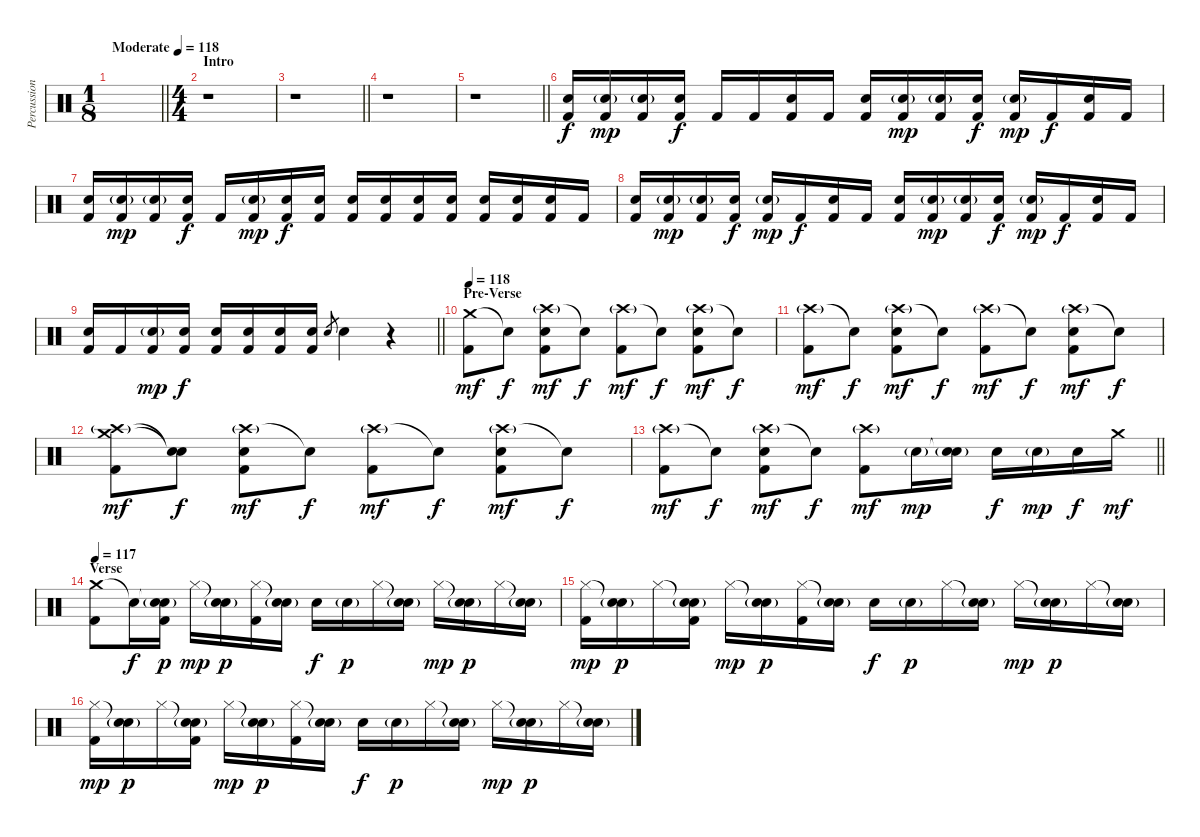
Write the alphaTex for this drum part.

\track ("Percussions" "Percussion") {instrument percussion}
\staff {score}
\articulation defaults
\ts (1 8)
\tempo (118 "Moderate")
\clef neutral
\barLineRight lightlight
\ks c
|
\ts (4 4)
\section ("" "Intro")
r.1 |
\barLineRight lightlight
r.1 |
r.1 |
\barLineRight lightlight
r.1 |
("Electric Snare (hit)" "Kick (hit) 2").16 ("Electric Snare (hit)"{g} "Kick (hit) 2").16{dy mp} ("Electric Snare (hit)"{g} "Kick (hit) 2").16 ("Electric Snare (hit)" "Kick (hit) 2").16{dy f} "Kick (hit) 2".16 "Kick (hit) 2".16 ("Electric Snare (hit)" "Kick (hit) 2").16 "Kick (hit) 2".16 ("Electric Snare (hit)" "Kick (hit) 2").16 ("Electric Snare (hit)"{g} "Kick (hit) 2").16{dy mp} ("Electric Snare (hit)"{g} "Kick (hit) 2").16 ("Electric Snare (hit)" "Kick (hit) 2").16{dy f} ("Electric Snare (hit)"{g} "Kick (hit) 2").16{dy mp} "Kick (hit) 2".16{dy f} ("Electric Snare (hit)" "Kick (hit) 2").16 "Kick (hit) 2".16 |
("Electric Snare (hit)" "Kick (hit) 2").16 ("Electric Snare (hit)"{g} "Kick (hit) 2").16{dy mp} ("Electric Snare (hit)"{g} "Kick (hit) 2").16 ("Electric Snare (hit)" "Kick (hit) 2").16{dy f} "Kick (hit) 2".16 ("Electric Snare (hit)"{g} "Kick (hit) 2").16{dy mp} ("Electric Snare (hit)" "Kick (hit) 2").16{dy f} ("Electric Snare (hit)" "Kick (hit) 2").16 ("Electric Snare (hit)" "Kick (hit) 2").16 ("Electric Snare (hit)" "Kick (hit) 2").16 ("Electric Snare (hit)" "Kick (hit) 2").16 ("Electric Snare (hit)" "Kick (hit) 2").16 ("Electric Snare (hit)" "Kick (hit) 2").16 ("Electric Snare (hit)" "Kick (hit) 2").16 ("Electric Snare (hit)" "Kick (hit) 2").16 "Kick (hit) 2".16 |
("Electric Snare (hit)" "Kick (hit) 2").16 ("Electric Snare (hit)"{g} "Kick (hit) 2").16{dy mp} ("Electric Snare (hit)"{g} "Kick (hit) 2").16 ("Electric Snare (hit)" "Kick (hit) 2").16{dy f} ("Electric Snare (hit)"{g} "Kick (hit) 2").16{dy mp} "Kick (hit) 2".16{dy f} ("Electric Snare (hit)" "Kick (hit) 2").16 "Kick (hit) 2".16 ("Electric Snare (hit)" "Kick (hit) 2").16 ("Electric Snare (hit)"{g} "Kick (hit) 2").16{dy mp} ("Electric Snare (hit)"{g} "Kick (hit) 2").16 ("Electric Snare (hit)" "Kick (hit) 2").16{dy f} ("Electric Snare (hit)"{g} "Kick (hit) 2").16{dy mp} "Kick (hit) 2".16{dy f} ("Electric Snare (hit)" "Kick (hit) 2").16 "Kick (hit) 2".16 |
\barLineRight lightlight
("Electric Snare (hit)" "Kick (hit) 2").16 "Kick (hit) 2".16 ("Electric Snare (hit)"{g} "Kick (hit) 2").16{dy mp} ("Electric Snare (hit)" "Kick (hit) 2").16{dy f} ("Electric Snare (hit)" "Kick (hit) 2").16 ("Electric Snare (hit)" "Kick (hit) 2").16 ("Electric Snare (hit)" "Kick (hit) 2").16 ("Electric Snare (hit)" "Kick (hit) 2").16 "Electric Snare (hit)".8{gr} "Electric Snare (hit)".4 r.4 |
\section ("" "Pre-Verse")
\tempo 118
("Crash medium (hit)" "Kick (hit) 2").8{dy mf} "Snare (hit)"{t}.8{dy f} ("Crash high (hit)"{g} "Electric Snare (hit)" "Kick (hit) 2").8{dy mf} "Snare (hit)"{t}.8{dy f} ("Crash high (hit)"{g} "Kick (hit) 2").8{dy mf} "Snare (hit)"{t}.8{dy f} ("Crash high (hit)"{g} "Electric Snare (hit)" "Kick (hit) 2").8{dy mf} "Snare (hit)"{t}.8{dy f} |
("Crash high (hit)"{g} "Kick (hit) 2").8{dy mf} "Snare (hit)"{t}.8{dy f} ("Crash high (hit)"{g} "Electric Snare (hit)" "Kick (hit) 2").8{dy mf} "Snare (hit)"{t}.8{dy f} ("Crash high (hit)"{g} "Kick (hit) 2").8{dy mf} "Snare (hit)"{t}.8{dy f} ("Crash high (hit)"{g} "Electric Snare (hit)" "Kick (hit) 2").8{dy mf} "Snare (hit)"{t}.8{dy f} |
("Crash medium (hit)" "Crash high (hit)"{g} "Kick (hit) 2").8{dy mf} ("Snare (hit)"{t} "Snare (hit)"{t}).8{dy f} ("Crash high (hit)"{g} "Electric Snare (hit)" "Kick (hit) 2").8{dy mf} "Snare (hit)"{t}.8{dy f} ("Crash high (hit)"{g} "Kick (hit) 2").8{dy mf} "Snare (hit)"{t}.8{dy f} ("Crash high (hit)"{g} "Electric Snare (hit)" "Kick (hit) 2").8{dy mf} "Snare (hit)"{t}.8{dy f} |
\barLineRight lightlight
("Crash high (hit)"{g} "Kick (hit) 2").8{dy mf} "Snare (hit)"{t}.8{dy f} ("Crash high (hit)"{g} "Electric Snare (hit)" "Kick (hit) 2").8{dy mf} "Snare (hit)"{t}.8{dy f} ("Crash high (hit)"{g} "Kick (hit) 2").8{dy mf} "Electric Snare (hit)"{g}.16{dy mp} ("Snare (hit)"{t} "Electric Snare (hit)"{g}).16 "Electric Snare (hit)".16{dy f} "Electric Snare (hit)"{g}.16{dy mp} "Electric Snare (hit)".16{dy f} "Crash medium (hit)".16{dy mf} |
\section ("" "Verse")
\tempo 117
("Crash medium (hit)" "Kick (hit) 2").8 "Snare (hit)"{t}.16{dy f} ("Snare (hit)"{t} "Electric Snare (hit)"{g} "Kick (hit) 2").16{dy p} "Hi-Hat (closed)".16{dy mp} ("Snare (hit)"{t} "Electric Snare (hit)"{g}).16{dy p} ("Hi-Hat (closed)" "Kick (hit) 2").16 ("Snare (hit)"{t} "Electric Snare (hit)"{g}).16 "Electric Snare (hit)".16{dy f} "Electric Snare (hit)"{g}.16{dy p} "Hi-Hat (closed)".16 ("Snare (hit)"{t} "Electric Snare (hit)"{g}).16 "Hi-Hat (closed)".16{dy mp} ("Snare (hit)"{t} "Electric Snare (hit)"{g}).16{dy p} "Hi-Hat (closed)".16 ("Snare (hit)"{t} "Electric Snare (hit)"{g}).16 |
("Hi-Hat (closed)" "Kick (hit) 2").16{dy mp} ("Snare (hit)"{t} "Electric Snare (hit)"{g}).16{dy p} "Hi-Hat (closed)".16 ("Snare (hit)"{t} "Electric Snare (hit)"{g} "Kick (hit) 2").16 "Hi-Hat (closed)".16{dy mp} ("Snare (hit)"{t} "Electric Snare (hit)"{g}).16{dy p} ("Hi-Hat (closed)" "Kick (hit) 2").16 ("Snare (hit)"{t} "Electric Snare (hit)"{g}).16 "Electric Snare (hit)".16{dy f} "Electric Snare (hit)"{g}.16{dy p} "Hi-Hat (closed)".16 ("Snare (hit)"{t} "Electric Snare (hit)"{g}).16 "Hi-Hat (closed)".16{dy mp} ("Snare (hit)"{t} "Electric Snare (hit)"{g}).16{dy p} "Hi-Hat (closed)".16 ("Snare (hit)"{t} "Electric Snare (hit)"{g}).16 |
("Hi-Hat (closed)" "Kick (hit) 2").16{dy mp} ("Snare (hit)"{t} "Electric Snare (hit)"{g}).16{dy p} "Hi-Hat (closed)".16 ("Snare (hit)"{t} "Electric Snare (hit)"{g} "Kick (hit) 2").16 "Hi-Hat (closed)".16{dy mp} ("Snare (hit)"{t} "Electric Snare (hit)"{g}).16{dy p} ("Hi-Hat (closed)" "Kick (hit) 2").16 ("Snare (hit)"{t} "Electric Snare (hit)"{g}).16 "Electric Snare (hit)".16{dy f} "Electric Snare (hit)"{g}.16{dy p} "Hi-Hat (closed)".16 ("Snare (hit)"{t} "Electric Snare (hit)"{g}).16 "Hi-Hat (closed)".16{dy mp} ("Snare (hit)"{t} "Electric Snare (hit)"{g}).16{dy p} "Hi-Hat (closed)".16 ("Snare (hit)"{t} "Electric Snare (hit)"{g}).16
